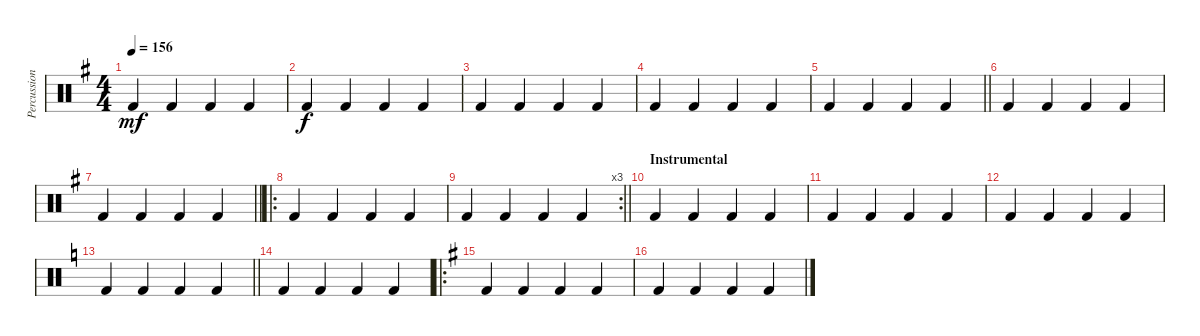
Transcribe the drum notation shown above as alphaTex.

\track ("Percussion" "Percussion") {instrument percussion}
\staff {score}
\articulation defaults
\ts (4 4)
\tempo 156
\clef neutral
\ks g "Kick (hit) 2".4{dy mf} "Kick (hit) 2".4 "Kick (hit) 2".4 "Kick (hit) 2".4
|
"Kick (hit) 2".4{dy f} "Kick (hit) 2".4 "Kick (hit) 2".4 "Kick (hit) 2".4 |
"Kick (hit) 2".4 "Kick (hit) 2".4 "Kick (hit) 2".4 "Kick (hit) 2".4 |
"Kick (hit) 2".4 "Kick (hit) 2".4 "Kick (hit) 2".4 "Kick (hit) 2".4 |
\barLineRight lightlight "Kick (hit) 2".4 "Kick (hit) 2".4 "Kick (hit) 2".4 "Kick (hit) 2".4
|
"Kick (hit) 2".4 "Kick (hit) 2".4 "Kick (hit) 2".4 "Kick (hit) 2".4 |
\barLineRight lightlight "Kick (hit) 2".4 "Kick (hit) 2".4 "Kick (hit) 2".4 "Kick (hit) 2".4
|
\ro "Kick (hit) 2".4 "Kick (hit) 2".4 "Kick (hit) 2".4 "Kick (hit) 2".4
|
\rc 3
\barLineRight lightlight "Kick (hit) 2".4 "Kick (hit) 2".4 "Kick (hit) 2".4 "Kick (hit) 2".4
|
\section ("" "Instrumental")
"Kick (hit) 2".4 "Kick (hit) 2".4 "Kick (hit) 2".4 "Kick (hit) 2".4 |
"Kick (hit) 2".4 "Kick (hit) 2".4 "Kick (hit) 2".4 "Kick (hit) 2".4 |
"Kick (hit) 2".4 "Kick (hit) 2".4 "Kick (hit) 2".4 "Kick (hit) 2".4 |
\barLineRight lightlight
\ks c "Kick (hit) 2".4 "Kick (hit) 2".4 "Kick (hit) 2".4 "Kick (hit) 2".4
|
"Kick (hit) 2".4 "Kick (hit) 2".4 "Kick (hit) 2".4 "Kick (hit) 2".4 |
\ro
\ks g "Kick (hit) 2".4 "Kick (hit) 2".4 "Kick (hit) 2".4 "Kick (hit) 2".4
|
"Kick (hit) 2".4 "Kick (hit) 2".4 "Kick (hit) 2".4 "Kick (hit) 2".4
